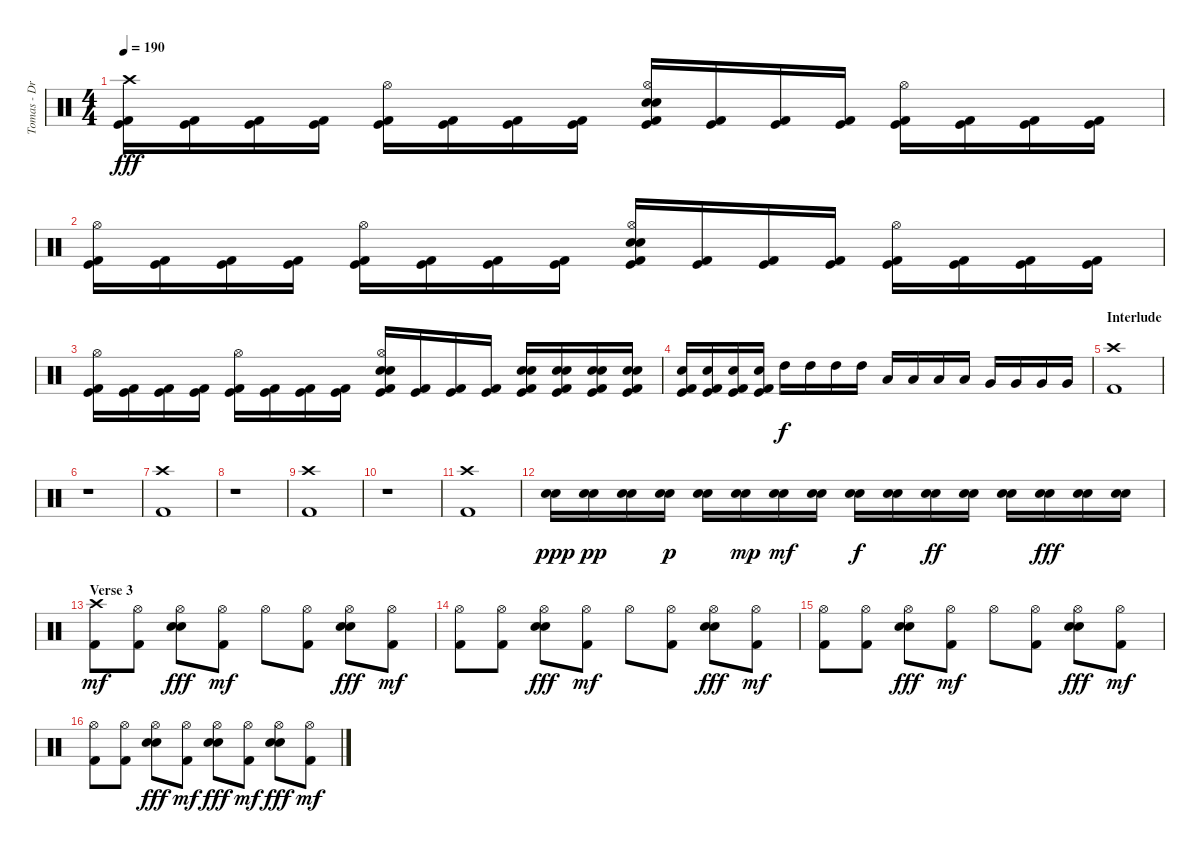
\track ("Tomas - Drums" "Tomas - Dr") {instrument percussion}
\staff {score}
\articulation defaults
\ts (4 4)
\tempo 190
\clef neutral
\ks c
("Crash high (hit)" "Kick (hit)" "Kick (hit) 2").16{dy fff} ("Kick (hit)" "Kick (hit) 2").16 ("Kick (hit)" "Kick (hit) 2").16 ("Kick (hit)" "Kick (hit) 2").16 ("Hi-Hat (open)" "Kick (hit)" "Kick (hit) 2").16 ("Kick (hit)" "Kick (hit) 2").16 ("Kick (hit)" "Kick (hit) 2").16 ("Kick (hit)" "Kick (hit) 2").16 ("Hi-Hat (open)" "Electric Snare (hit)" "Electric Snare (hit)" "Kick (hit)" "Kick (hit) 2").16 ("Kick (hit)" "Kick (hit) 2").16 ("Kick (hit)" "Kick (hit) 2").16 ("Kick (hit)" "Kick (hit) 2").16 ("Hi-Hat (open)" "Kick (hit)" "Kick (hit) 2").16 ("Kick (hit)" "Kick (hit) 2").16 ("Kick (hit)" "Kick (hit) 2").16 ("Kick (hit)" "Kick (hit) 2").16 |
("Hi-Hat (open)" "Kick (hit)" "Kick (hit) 2").16 ("Kick (hit)" "Kick (hit) 2").16 ("Kick (hit)" "Kick (hit) 2").16 ("Kick (hit)" "Kick (hit) 2").16 ("Hi-Hat (open)" "Kick (hit)" "Kick (hit) 2").16 ("Kick (hit)" "Kick (hit) 2").16 ("Kick (hit)" "Kick (hit) 2").16 ("Kick (hit)" "Kick (hit) 2").16 ("Hi-Hat (open)" "Electric Snare (hit)" "Electric Snare (hit)" "Kick (hit)" "Kick (hit) 2").16 ("Kick (hit)" "Kick (hit) 2").16 ("Kick (hit)" "Kick (hit) 2").16 ("Kick (hit)" "Kick (hit) 2").16 ("Hi-Hat (open)" "Kick (hit)" "Kick (hit) 2").16 ("Kick (hit)" "Kick (hit) 2").16 ("Kick (hit)" "Kick (hit) 2").16 ("Kick (hit)" "Kick (hit) 2").16 |
("Hi-Hat (open)" "Kick (hit)" "Kick (hit) 2").16 ("Kick (hit)" "Kick (hit) 2").16 ("Kick (hit)" "Kick (hit) 2").16 ("Kick (hit)" "Kick (hit) 2").16 ("Hi-Hat (open)" "Kick (hit)" "Kick (hit) 2").16 ("Kick (hit)" "Kick (hit) 2").16 ("Kick (hit)" "Kick (hit) 2").16 ("Kick (hit)" "Kick (hit) 2").16 ("Hi-Hat (open)" "Electric Snare (hit)" "Electric Snare (hit)" "Kick (hit)" "Kick (hit) 2").16 ("Kick (hit)" "Kick (hit) 2").16 ("Kick (hit)" "Kick (hit) 2").16 ("Kick (hit)" "Kick (hit) 2").16 ("Electric Snare (hit)" "Electric Snare (hit)" "Kick (hit)" "Kick (hit) 2").16 ("Electric Snare (hit)" "Electric Snare (hit)" "Kick (hit)" "Kick (hit) 2").16 ("Electric Snare (hit)" "Electric Snare (hit)" "Kick (hit)" "Kick (hit) 2").16 ("Electric Snare (hit)" "Electric Snare (hit)" "Kick (hit)" "Kick (hit) 2").16 |
("Electric Snare (hit)" "Kick (hit) 2" "Kick (hit)").16 ("Electric Snare (hit)" "Kick (hit) 2" "Kick (hit)").16 ("Electric Snare (hit)" "Kick (hit) 2" "Kick (hit)").16 ("Electric Snare (hit)" "Kick (hit) 2" "Kick (hit)").16 "High Tom (hit)".16{dy f} "High Tom (hit)".16 "High Tom (hit)".16 "High Tom (hit)".16 "Low Tom (hit)".16 "Low Tom (hit)".16 "Low Tom (hit)".16 "Low Tom (hit)".16 "Very Low Tom (hit)".16 "Very Low Tom (hit)".16 "Very Low Tom (hit)".16 "Very Low Tom (hit)".16 |
\section ("" "Interlude")
("Crash high (hit)" "Kick (hit) 2").1 |
r.1 |
("Crash high (hit)" "Kick (hit) 2").1 |
r.1 |
("Crash high (hit)" "Kick (hit) 2").1 |
r.1 |
("Crash high (hit)" "Kick (hit) 2").1 |
("Electric Snare (hit)" "Electric Snare (hit)").16{dy ppp} ("Electric Snare (hit)" "Electric Snare (hit)").16{dy pp} ("Electric Snare (hit)" "Electric Snare (hit)").16 ("Electric Snare (hit)" "Electric Snare (hit)").16{dy p} ("Electric Snare (hit)" "Electric Snare (hit)").16 ("Electric Snare (hit)" "Electric Snare (hit)").16{dy mp} ("Electric Snare (hit)" "Electric Snare (hit)").16{dy mf} ("Electric Snare (hit)" "Electric Snare (hit)").16 ("Electric Snare (hit)" "Electric Snare (hit)").16{dy f} ("Electric Snare (hit)" "Electric Snare (hit)").16 ("Electric Snare (hit)" "Electric Snare (hit)").16{dy ff} ("Electric Snare (hit)" "Electric Snare (hit)").16 ("Electric Snare (hit)" "Electric Snare (hit)").16 ("Electric Snare (hit)" "Electric Snare (hit)").16{dy fff} ("Electric Snare (hit)" "Electric Snare (hit)").16 ("Electric Snare (hit)" "Electric Snare (hit)").16 |
\section ("" "Verse 3")
("Crash high (hit)" "Kick (hit) 2").8{dy mf} ("Hi-Hat (open)" "Kick (hit) 2").8 ("Hi-Hat (open)" "Electric Snare (hit)" "Electric Snare (hit)").8{dy fff} ("Hi-Hat (open)" "Kick (hit) 2").8{dy mf} "Hi-Hat (open)".8 ("Hi-Hat (open)" "Kick (hit) 2").8 ("Hi-Hat (open)" "Electric Snare (hit)" "Electric Snare (hit)").8{dy fff} ("Hi-Hat (open)" "Kick (hit) 2").8{dy mf} |
("Hi-Hat (open)" "Kick (hit) 2").8 ("Hi-Hat (open)" "Kick (hit) 2").8 ("Hi-Hat (open)" "Electric Snare (hit)" "Electric Snare (hit)").8{dy fff} ("Hi-Hat (open)" "Kick (hit) 2").8{dy mf} "Hi-Hat (open)".8 ("Hi-Hat (open)" "Kick (hit) 2").8 ("Hi-Hat (open)" "Electric Snare (hit)" "Electric Snare (hit)").8{dy fff} ("Hi-Hat (open)" "Kick (hit) 2").8{dy mf} |
("Hi-Hat (open)" "Kick (hit) 2").8 ("Hi-Hat (open)" "Kick (hit) 2").8 ("Hi-Hat (open)" "Electric Snare (hit)" "Electric Snare (hit)").8{dy fff} ("Hi-Hat (open)" "Kick (hit) 2").8{dy mf} "Hi-Hat (open)".8 ("Hi-Hat (open)" "Kick (hit) 2").8 ("Hi-Hat (open)" "Electric Snare (hit)" "Electric Snare (hit)").8{dy fff} ("Hi-Hat (open)" "Kick (hit) 2").8{dy mf} |
("Hi-Hat (open)" "Kick (hit) 2").8 ("Hi-Hat (open)" "Kick (hit) 2").8 ("Hi-Hat (open)" "Electric Snare (hit)" "Electric Snare (hit)").8{dy fff} ("Hi-Hat (open)" "Kick (hit) 2").8{dy mf} ("Hi-Hat (open)" "Electric Snare (hit)" "Electric Snare (hit)").8{dy fff} ("Hi-Hat (open)" "Kick (hit) 2").8{dy mf} ("Hi-Hat (open)" "Electric Snare (hit)" "Electric Snare (hit)").8{dy fff} ("Hi-Hat (open)" "Kick (hit) 2").8{dy mf}
